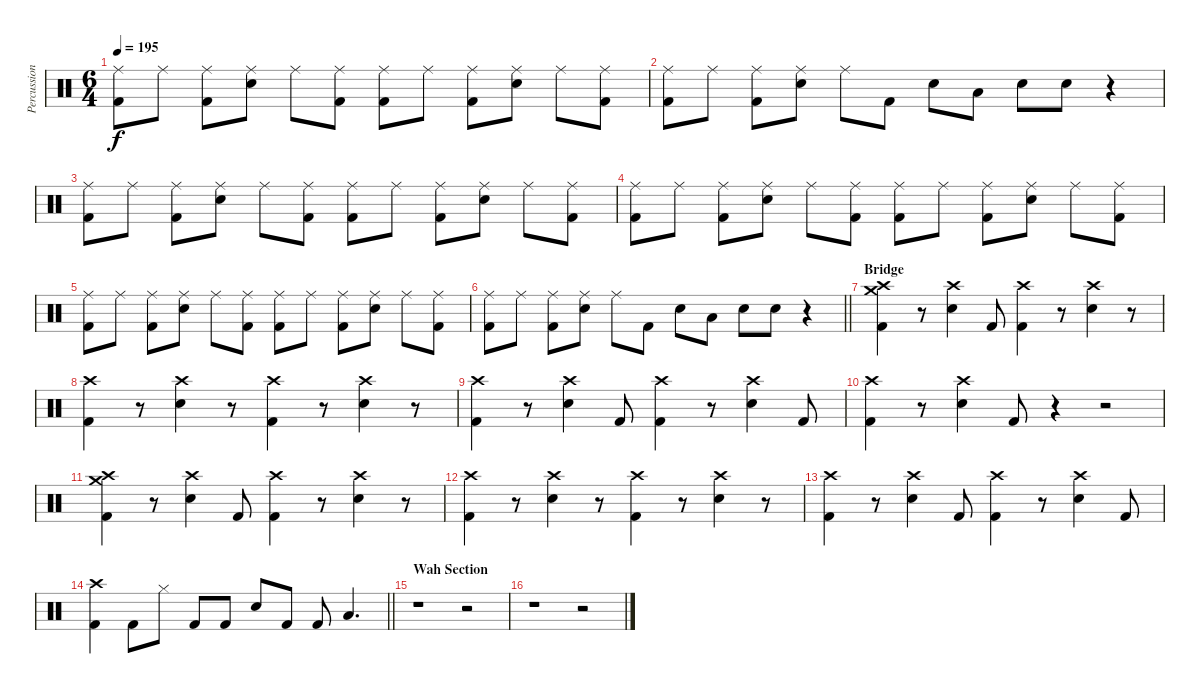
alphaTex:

\track ("Percussion" "Percussion") {instrument percussion}
\staff {score}
\articulation defaults
\ts (6 4)
\tempo 195
\clef neutral
\ks c
("Ride (middle)" "Kick (hit) 2").8{dy f} "Ride (middle)".8 ("Ride (middle)" "Kick (hit) 2").8 ("Ride (middle)" "Electric Snare (hit)").8 "Ride (middle)".8 ("Ride (middle)" "Kick (hit) 2").8 ("Ride (middle)" "Kick (hit) 2").8 "Ride (middle)".8 ("Ride (middle)" "Kick (hit) 2").8 ("Ride (middle)" "Electric Snare (hit)").8 "Ride (middle)".8 ("Ride (middle)" "Kick (hit) 2").8 |
("Ride (middle)" "Kick (hit) 2").8 "Ride (middle)".8 ("Ride (middle)" "Kick (hit) 2").8 ("Ride (middle)" "Electric Snare (hit)").8 "Ride (middle)".8 "Kick (hit) 2".8 "Electric Snare (hit)".8 "Low Floor Tom (hit)".8 "Electric Snare (hit)".8 "Electric Snare (hit)".8 r.4 |
("Ride (middle)" "Kick (hit) 2").8 "Ride (middle)".8 ("Ride (middle)" "Kick (hit) 2").8 ("Ride (middle)" "Electric Snare (hit)").8 "Ride (middle)".8 ("Ride (middle)" "Kick (hit) 2").8 ("Ride (middle)" "Kick (hit) 2").8 "Ride (middle)".8 ("Ride (middle)" "Kick (hit) 2").8 ("Ride (middle)" "Electric Snare (hit)").8 "Ride (middle)".8 ("Ride (middle)" "Kick (hit) 2").8 |
("Ride (middle)" "Kick (hit) 2").8 "Ride (middle)".8 ("Ride (middle)" "Kick (hit) 2").8 ("Ride (middle)" "Electric Snare (hit)").8 "Ride (middle)".8 ("Ride (middle)" "Kick (hit) 2").8 ("Ride (middle)" "Kick (hit) 2").8 "Ride (middle)".8 ("Ride (middle)" "Kick (hit) 2").8 ("Ride (middle)" "Electric Snare (hit)").8 "Ride (middle)".8 ("Ride (middle)" "Kick (hit) 2").8 |
("Ride (middle)" "Kick (hit) 2").8 "Ride (middle)".8 ("Ride (middle)" "Kick (hit) 2").8 ("Ride (middle)" "Electric Snare (hit)").8 "Ride (middle)".8 ("Ride (middle)" "Kick (hit) 2").8 ("Ride (middle)" "Kick (hit) 2").8 "Ride (middle)".8 ("Ride (middle)" "Kick (hit) 2").8 ("Ride (middle)" "Electric Snare (hit)").8 "Ride (middle)".8 ("Ride (middle)" "Kick (hit) 2").8 |
\barLineRight lightlight
("Ride (middle)" "Kick (hit) 2").8 "Ride (middle)".8 ("Ride (middle)" "Kick (hit) 2").8 ("Ride (middle)" "Electric Snare (hit)").8 "Ride (middle)".8 "Kick (hit) 2".8 "Electric Snare (hit)".8 "Low Floor Tom (hit)".8 "Electric Snare (hit)".8 "Electric Snare (hit)".8 r.4 |
\section ("" "Bridge")
("Crash high (hit)" "Crash medium (hit)" "Kick (hit) 2").4 r.8 ("Crash high (hit)" "Electric Snare (hit)").4 "Kick (hit) 2".8 ("Crash high (hit)" "Kick (hit) 2").4 r.8 ("Crash high (hit)" "Electric Snare (hit)").4 r.8 |
("Crash high (hit)" "Kick (hit) 2").4 r.8 ("Crash high (hit)" "Electric Snare (hit)").4 r.8 ("Crash high (hit)" "Kick (hit) 2").4 r.8 ("Crash high (hit)" "Electric Snare (hit)").4 r.8 |
("Crash high (hit)" "Kick (hit) 2").4 r.8 ("Crash high (hit)" "Electric Snare (hit)").4 "Kick (hit) 2".8 ("Crash high (hit)" "Kick (hit) 2").4 r.8 ("Crash high (hit)" "Electric Snare (hit)").4 "Kick (hit) 2".8 |
("Crash high (hit)" "Kick (hit) 2").4 r.8 ("Crash high (hit)" "Electric Snare (hit)").4 "Kick (hit) 2".8 r.4 r.2 |
("Crash high (hit)" "Crash medium (hit)" "Kick (hit) 2").4 r.8 ("Crash high (hit)" "Electric Snare (hit)").4 "Kick (hit) 2".8 ("Crash high (hit)" "Kick (hit) 2").4 r.8 ("Crash high (hit)" "Electric Snare (hit)").4 r.8 |
("Crash high (hit)" "Kick (hit) 2").4 r.8 ("Crash high (hit)" "Electric Snare (hit)").4 r.8 ("Crash high (hit)" "Kick (hit) 2").4 r.8 ("Crash high (hit)" "Electric Snare (hit)").4 r.8 |
("Crash high (hit)" "Kick (hit) 2").4 r.8 ("Crash high (hit)" "Electric Snare (hit)").4 "Kick (hit) 2".8 ("Crash high (hit)" "Kick (hit) 2").4 r.8 ("Crash high (hit)" "Electric Snare (hit)").4 "Kick (hit) 2".8 |
\barLineRight lightlight
("Crash high (hit)" "Kick (hit) 2").4 "Kick (hit) 2".8 "Hi-Hat (closed)".8 "Kick (hit) 2".8 "Kick (hit) 2".8 "Electric Snare (hit)".8 "Kick (hit) 2".8 "Kick (hit) 2".8 "Low Floor Tom (hit)".4{d} |
\section ("" "Wah Section")
r.1 r.2 |
r.1 r.2
